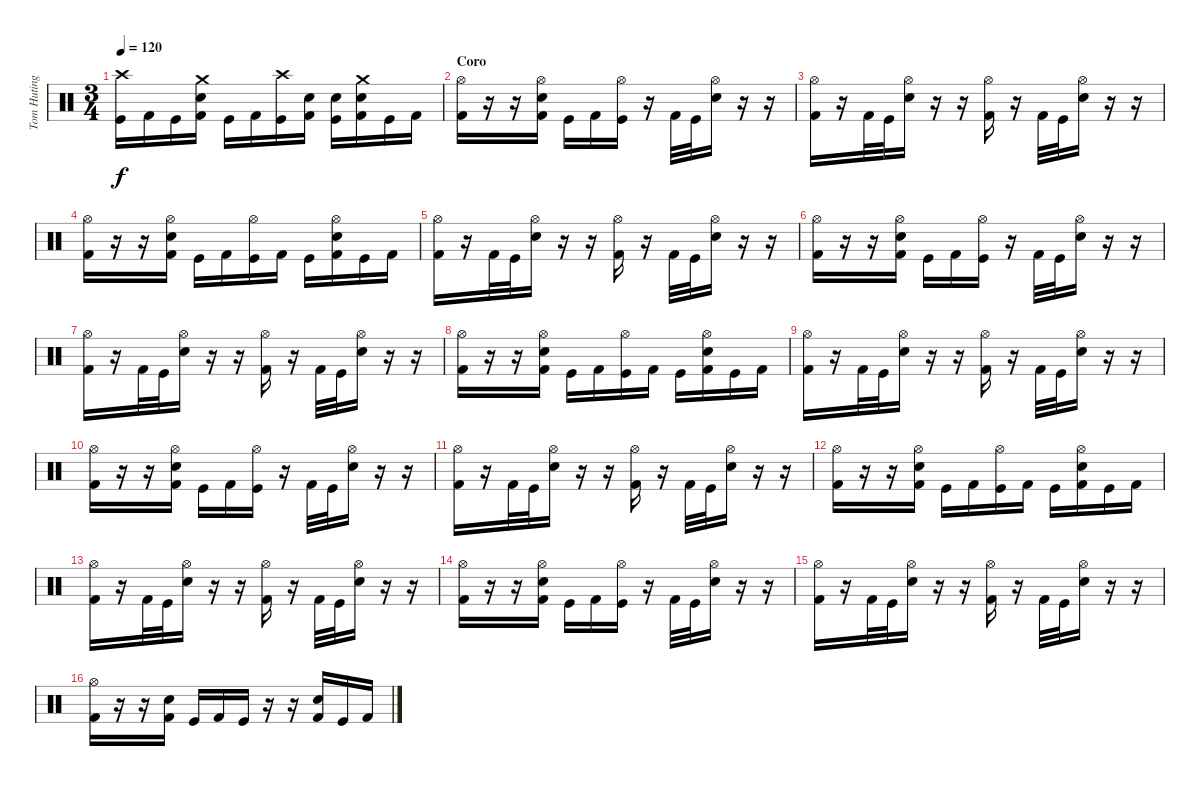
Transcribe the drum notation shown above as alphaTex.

\track ("Tom Huting" "Tom Huting") {instrument percussion}
\staff {score}
\articulation defaults
\ts (3 4)
\tempo 120
\clef neutral
\ks c
("Kick (hit)" "Crash high (hit)").16{dy f} "Kick (hit) 2".16 "Kick (hit)".16 ("Kick (hit) 2" "Snare (hit) 2" "Crash medium (hit)").16 "Kick (hit)".16 "Kick (hit) 2".16 ("Kick (hit)" "Crash high (hit)").16 ("Kick (hit) 2" "Snare (hit) 2").16 ("Kick (hit)" "Snare (hit) 2").16 ("Kick (hit) 2" "Snare (hit) 2" "Crash medium (hit)").16 "Kick (hit)".16 "Kick (hit) 2".16 |
\section ("" "Coro")
("Kick (hit) 2" "Hi-Hat (open)").16 r.16 r.16 ("Kick (hit) 2" "Snare (hit) 2" "Hi-Hat (open)").16 "Kick (hit)".16 "Kick (hit) 2".16 ("Kick (hit)" "Hi-Hat (open)").16 r.16 "Kick (hit) 2".32 "Kick (hit)".32 ("Snare (hit) 2" "Hi-Hat (open)").16 r.16 r.16 |
("Kick (hit) 2" "Hi-Hat (open)").16 r.16 "Kick (hit) 2".32 "Kick (hit)".32 ("Snare (hit) 2" "Hi-Hat (open)").16 r.16 r.16 ("Kick (hit) 2" "Hi-Hat (open)").16 r.16 "Kick (hit) 2".32 "Kick (hit)".32 ("Snare (hit) 2" "Hi-Hat (open)").16 r.16 r.16 |
("Kick (hit) 2" "Hi-Hat (open)").16 r.16 r.16 ("Kick (hit) 2" "Snare (hit) 2" "Hi-Hat (open)").16 "Kick (hit)".16 "Kick (hit) 2".16 ("Kick (hit)" "Hi-Hat (open)").16 "Kick (hit) 2".16 "Kick (hit)".16 ("Kick (hit) 2" "Snare (hit) 2" "Hi-Hat (open)").16 "Kick (hit)".16 "Kick (hit) 2".16 |
("Kick (hit) 2" "Hi-Hat (open)").16 r.16 "Kick (hit) 2".32 "Kick (hit)".32 ("Snare (hit) 2" "Hi-Hat (open)").16 r.16 r.16 ("Kick (hit) 2" "Hi-Hat (open)").16 r.16 "Kick (hit) 2".32 "Kick (hit)".32 ("Snare (hit) 2" "Hi-Hat (open)").16 r.16 r.16 |
("Kick (hit) 2" "Hi-Hat (open)").16 r.16 r.16 ("Kick (hit) 2" "Snare (hit) 2" "Hi-Hat (open)").16 "Kick (hit)".16 "Kick (hit) 2".16 ("Kick (hit)" "Hi-Hat (open)").16 r.16 "Kick (hit) 2".32 "Kick (hit)".32 ("Snare (hit) 2" "Hi-Hat (open)").16 r.16 r.16 |
("Kick (hit) 2" "Hi-Hat (open)").16 r.16 "Kick (hit) 2".32 "Kick (hit)".32 ("Snare (hit) 2" "Hi-Hat (open)").16 r.16 r.16 ("Kick (hit) 2" "Hi-Hat (open)").16 r.16 "Kick (hit) 2".32 "Kick (hit)".32 ("Snare (hit) 2" "Hi-Hat (open)").16 r.16 r.16 |
("Kick (hit) 2" "Hi-Hat (open)").16 r.16 r.16 ("Kick (hit) 2" "Snare (hit) 2" "Hi-Hat (open)").16 "Kick (hit)".16 "Kick (hit) 2".16 ("Kick (hit)" "Hi-Hat (open)").16 "Kick (hit) 2".16 "Kick (hit)".16 ("Kick (hit) 2" "Snare (hit) 2" "Hi-Hat (open)").16 "Kick (hit)".16 "Kick (hit) 2".16 |
("Kick (hit) 2" "Hi-Hat (open)").16 r.16 "Kick (hit) 2".32 "Kick (hit)".32 ("Snare (hit) 2" "Hi-Hat (open)").16 r.16 r.16 ("Kick (hit) 2" "Hi-Hat (open)").16 r.16 "Kick (hit) 2".32 "Kick (hit)".32 ("Snare (hit) 2" "Hi-Hat (open)").16 r.16 r.16 |
("Kick (hit) 2" "Hi-Hat (open)").16 r.16 r.16 ("Kick (hit) 2" "Snare (hit) 2" "Hi-Hat (open)").16 "Kick (hit)".16 "Kick (hit) 2".16 ("Kick (hit)" "Hi-Hat (open)").16 r.16 "Kick (hit) 2".32 "Kick (hit)".32 ("Snare (hit) 2" "Hi-Hat (open)").16 r.16 r.16 |
("Kick (hit) 2" "Hi-Hat (open)").16 r.16 "Kick (hit) 2".32 "Kick (hit)".32 ("Snare (hit) 2" "Hi-Hat (open)").16 r.16 r.16 ("Kick (hit) 2" "Hi-Hat (open)").16 r.16 "Kick (hit) 2".32 "Kick (hit)".32 ("Snare (hit) 2" "Hi-Hat (open)").16 r.16 r.16 |
("Kick (hit) 2" "Hi-Hat (open)").16 r.16 r.16 ("Kick (hit) 2" "Snare (hit) 2" "Hi-Hat (open)").16 "Kick (hit)".16 "Kick (hit) 2".16 ("Kick (hit)" "Hi-Hat (open)").16 "Kick (hit) 2".16 "Kick (hit)".16 ("Kick (hit) 2" "Snare (hit) 2" "Hi-Hat (open)").16 "Kick (hit)".16 "Kick (hit) 2".16 |
("Kick (hit) 2" "Hi-Hat (open)").16 r.16 "Kick (hit) 2".32 "Kick (hit)".32 ("Snare (hit) 2" "Hi-Hat (open)").16 r.16 r.16 ("Kick (hit) 2" "Hi-Hat (open)").16 r.16 "Kick (hit) 2".32 "Kick (hit)".32 ("Snare (hit) 2" "Hi-Hat (open)").16 r.16 r.16 |
("Kick (hit) 2" "Hi-Hat (open)").16 r.16 r.16 ("Kick (hit) 2" "Snare (hit) 2" "Hi-Hat (open)").16 "Kick (hit)".16 "Kick (hit) 2".16 ("Kick (hit)" "Hi-Hat (open)").16 r.16 "Kick (hit) 2".32 "Kick (hit)".32 ("Snare (hit) 2" "Hi-Hat (open)").16 r.16 r.16 |
("Kick (hit) 2" "Hi-Hat (open)").16 r.16 "Kick (hit) 2".32 "Kick (hit)".32 ("Snare (hit) 2" "Hi-Hat (open)").16 r.16 r.16 ("Kick (hit) 2" "Hi-Hat (open)").16 r.16 "Kick (hit) 2".32 "Kick (hit)".32 ("Snare (hit) 2" "Hi-Hat (open)").16 r.16 r.16 |
("Kick (hit) 2" "Hi-Hat (open)").16 r.16 r.16 ("Kick (hit) 2" "Snare (hit) 2").16 "Kick (hit)".16 "Kick (hit) 2".16 "Kick (hit)".16 r.16 r.16 ("Kick (hit) 2" "Snare (hit) 2").16 "Kick (hit)".16 "Kick (hit) 2".16
